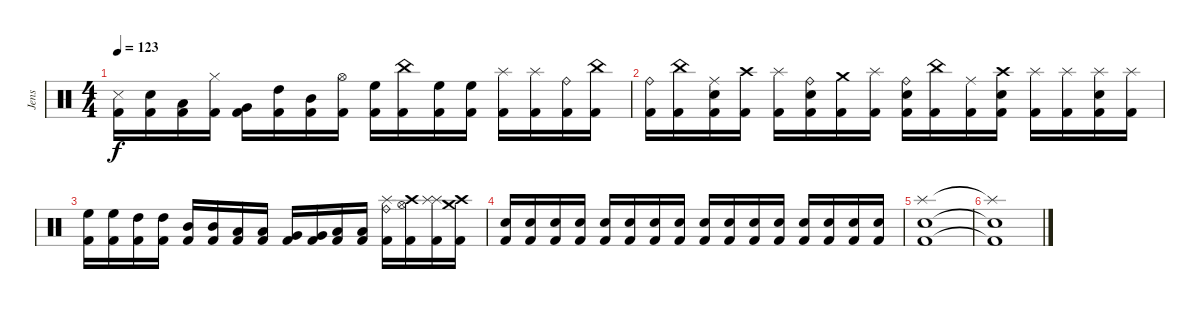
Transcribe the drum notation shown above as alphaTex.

\track ("Jens" "Jens") {instrument percussion}
\staff {score}
\articulation defaults
\ts (4 4)
\tempo 123
\clef neutral
\ks c
("Snare (side stick) 3" "Kick (hit) 2").16{dy f} ("Snare (hit) 2" "Kick (hit) 2").16 ("Low Floor Tom (hit)" "Kick (hit) 2").16 ("Hi-Hat (closed)" "Kick (hit) 2").16 ("Very Low Tom (hit)" "Kick (hit) 2").16 ("High Tom (hit)" "Kick (hit) 2").16 ("Mid Tom (hit)" "Kick (hit) 2").16 ("Hi-Hat (open)" "Kick (hit) 2").16 ("High Floor Tom (hit)" "Kick (hit) 2").16 ("China (hit)" "Kick (hit) 2").16 ("High Floor Tom (hit)" "Kick (hit) 2").16 ("High Floor Tom (hit)" "Kick (hit) 2").16 ("Splash (hit)" "Kick (hit) 2").16 ("Splash (hit)" "Kick (hit) 2").16 ("Ride (bell)" "Kick (hit) 2").16 ("China (hit)" "Kick (hit) 2").16 |
("Ride (bell)" "Kick (hit) 2").16 ("China (hit)" "Kick (hit) 2").16 ("Ride (middle)" "Snare (hit) 2" "Kick (hit) 2").16 ("Crash high (hit)" "Kick (hit) 2").16 ("Splash (hit)" "Kick (hit) 2").16 ("Ride (bell)" "Snare (hit) 2" "Kick (hit) 2").16 ("Crash medium (hit)" "Kick (hit) 2").16 ("Splash (hit)" "Kick (hit) 2").16 ("Ride (bell)" "Snare (hit) 2" "Kick (hit) 2").16 ("China (hit)" "Kick (hit) 2").16 ("Ride (middle)" "Kick (hit) 2").16 ("Crash high (hit)" "Snare (hit) 2" "Kick (hit) 2").16 ("Splash (hit)" "Kick (hit) 2").16 ("Splash (hit)" "Kick (hit) 2").16 ("Splash (hit)" "Snare (hit) 2" "Kick (hit) 2").16 ("Splash (hit)" "Kick (hit) 2").16 |
("High Floor Tom (hit)" "Kick (hit) 2").16 ("High Floor Tom (hit)" "Kick (hit) 2").16 ("High Tom (hit)" "Kick (hit) 2").16 ("High Tom (hit)" "Kick (hit) 2").16 ("Mid Tom (hit)" "Kick (hit) 2").16 ("Mid Tom (hit)" "Kick (hit) 2").16 ("Low Tom (hit)" "Kick (hit) 2").16 ("Low Tom (hit)" "Kick (hit) 2").16 ("Very Low Tom (hit)" "Kick (hit) 2").16 ("Very Low Tom (hit)" "Kick (hit) 2").16 ("Low Floor Tom (hit)" "Kick (hit) 2").16 ("Low Floor Tom (hit)" "Kick (hit) 2").16 ("Ride (bell)" "Splash (hit)" "Kick (hit) 2").16 ("Crash high (hit)" "Hi-Hat (open)" "Kick (hit) 2").16 ("Splash (hit)" "Splash (hit)" "Kick (hit) 2").16 ("Crash medium (hit)" "Crash high (hit)" "Kick (hit) 2").16 |
("Electric Snare (hit)" "Kick (hit) 2").16 ("Electric Snare (hit)" "Kick (hit) 2").16 ("Electric Snare (hit)" "Kick (hit) 2").16 ("Electric Snare (hit)" "Kick (hit) 2").16 ("Electric Snare (hit)" "Kick (hit) 2").16 ("Electric Snare (hit)" "Kick (hit) 2").16 ("Electric Snare (hit)" "Kick (hit) 2").16 ("Electric Snare (hit)" "Kick (hit) 2").16 ("Electric Snare (hit)" "Kick (hit) 2").16 ("Electric Snare (hit)" "Kick (hit) 2").16 ("Electric Snare (hit)" "Kick (hit) 2").16 ("Electric Snare (hit)" "Kick (hit) 2").16 ("Electric Snare (hit)" "Kick (hit) 2").16 ("Electric Snare (hit)" "Kick (hit) 2").16 ("Electric Snare (hit)" "Kick (hit) 2").16 ("Electric Snare (hit)" "Kick (hit) 2").16 |
("Splash (hit)" "Snare (hit) 2" "Kick (hit) 2").1 |
("Splash (hit)"{t} "Snare (hit) 2"{t} "Kick (hit) 2"{t}).1
